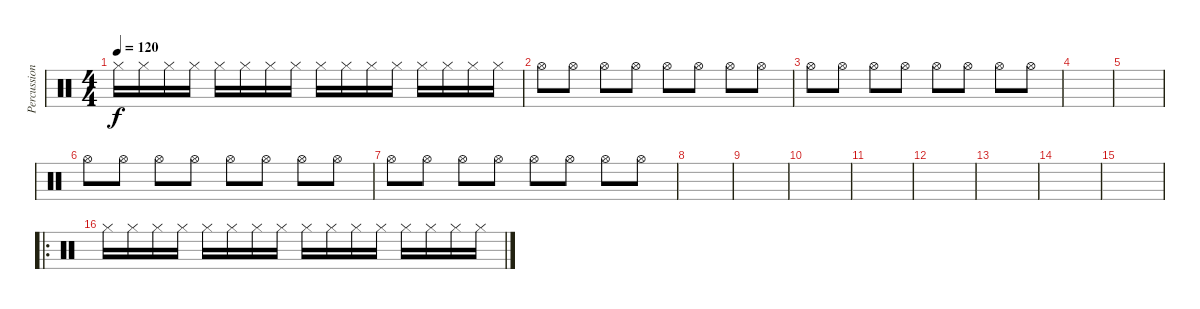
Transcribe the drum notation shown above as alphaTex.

\track ("Percussion" "Percussion") {instrument percussion}
\staff {score}
\articulation defaults
\ts (4 4)
\tempo 120
\clef neutral
\ks c "Hi-Hat (closed)".16{dy f} "Hi-Hat (closed)".16 "Hi-Hat (closed)".16 "Hi-Hat (closed)".16 "Hi-Hat (closed)".16 "Hi-Hat (closed)".16 "Hi-Hat (closed)".16 "Hi-Hat (closed)".16 "Hi-Hat (closed)".16 "Hi-Hat (closed)".16 "Hi-Hat (closed)".16 "Hi-Hat (closed)".16 "Hi-Hat (closed)".16 "Hi-Hat (closed)".16 "Hi-Hat (closed)".16 "Hi-Hat (closed)".16
|
"Hi-Hat (open)".8 "Hi-Hat (open)".8 "Hi-Hat (open)".8 "Hi-Hat (open)".8 "Hi-Hat (open)".8 "Hi-Hat (open)".8 "Hi-Hat (open)".8 "Hi-Hat (open)".8 |
"Hi-Hat (open)".8 "Hi-Hat (open)".8 "Hi-Hat (open)".8 "Hi-Hat (open)".8 "Hi-Hat (open)".8 "Hi-Hat (open)".8 "Hi-Hat (open)".8 "Hi-Hat (open)".8 |
|
|
"Hi-Hat (open)".8 "Hi-Hat (open)".8 "Hi-Hat (open)".8 "Hi-Hat (open)".8 "Hi-Hat (open)".8 "Hi-Hat (open)".8 "Hi-Hat (open)".8 "Hi-Hat (open)".8 |
"Hi-Hat (open)".8 "Hi-Hat (open)".8 "Hi-Hat (open)".8 "Hi-Hat (open)".8 "Hi-Hat (open)".8 "Hi-Hat (open)".8 "Hi-Hat (open)".8 "Hi-Hat (open)".8 |
|
|
|
|
|
|
|
|
\ro "Hi-Hat (closed)".16 "Hi-Hat (closed)".16 "Hi-Hat (closed)".16 "Hi-Hat (closed)".16 "Hi-Hat (closed)".16 "Hi-Hat (closed)".16 "Hi-Hat (closed)".16 "Hi-Hat (closed)".16 "Hi-Hat (closed)".16 "Hi-Hat (closed)".16 "Hi-Hat (closed)".16 "Hi-Hat (closed)".16 "Hi-Hat (closed)".16 "Hi-Hat (closed)".16 "Hi-Hat (closed)".16 "Hi-Hat (closed)".16
